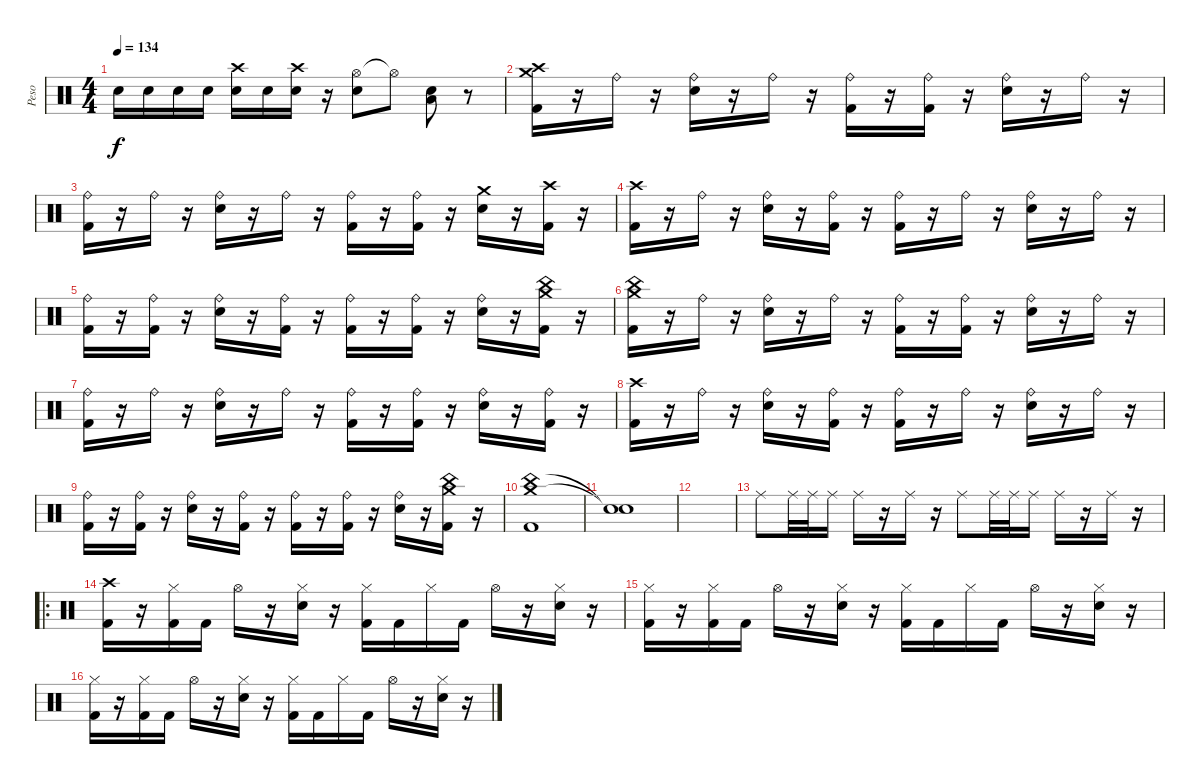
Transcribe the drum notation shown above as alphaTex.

\track ("Peso" "Peso") {instrument percussion}
\staff {score}
\articulation defaults
\ts (4 4)
\tempo 134
\clef neutral
\ks c "Snare (hit) 2".16{dy f} "Snare (hit) 2".16 "Snare (hit) 2".16 "Snare (hit) 2".16
("Crash high (hit)" "Snare (hit) 2").16 "Snare (hit) 2".16 ("Crash high (hit)" "Snare (hit) 2").16 r.16 ("Hi-Hat (open)" "Snare (hit) 2").8 "Hi-Hat (open)"{t}.8 ("Low Floor Tom (hit)" "Snare (hit) 2").8 r.8 |
("Crash high (hit)" "Crash medium (hit)" "Kick (hit) 2").16 r.16 "Ride (bell)".16 r.16 ("Ride (bell)" "Snare (hit) 2").16 r.16 "Ride (bell)".16 r.16 ("Ride (bell)" "Kick (hit) 2").16 r.16 ("Ride (bell)" "Kick (hit) 2").16 r.16 ("Ride (bell)" "Snare (hit) 2").16 r.16 "Ride (bell)".16 r.16 |
("Ride (bell)" "Kick (hit) 2").16 r.16 "Ride (bell)".16 r.16 ("Ride (bell)" "Snare (hit) 2").16 r.16 "Ride (bell)".16 r.16 ("Ride (bell)" "Kick (hit) 2").16 r.16 ("Ride (bell)" "Kick (hit) 2").16 r.16 ("Crash medium (hit)" "Snare (hit) 2").16 r.16 ("Crash high (hit)" "Kick (hit) 2").16 r.16 |
("Crash high (hit)" "Kick (hit) 2").16 r.16 "Ride (bell)".16 r.16 ("Ride (bell)" "Snare (hit) 2").16 r.16 ("Ride (bell)" "Kick (hit) 2").16 r.16 ("Ride (bell)" "Kick (hit) 2").16 r.16 "Ride (bell)".16 r.16 ("Ride (bell)" "Snare (hit) 2").16 r.16 "Ride (bell)".16 r.16 |
("Ride (bell)" "Kick (hit) 2").16 r.16 ("Ride (bell)" "Kick (hit) 2").16 r.16 ("Ride (bell)" "Snare (hit) 2").16 r.16 ("Ride (bell)" "Kick (hit) 2").16 r.16 ("Ride (bell)" "Kick (hit) 2").16 r.16 ("Ride (bell)" "Kick (hit) 2").16 r.16 ("Ride (bell)" "Snare (hit) 2").16 r.16 ("Crash medium (hit)" "China (hit)" "Kick (hit) 2").16 r.16 |
("Crash medium (hit)" "China (hit)" "Kick (hit) 2").16 r.16 "Ride (bell)".16 r.16 ("Ride (bell)" "Snare (hit) 2").16 r.16 "Ride (bell)".16 r.16 ("Ride (bell)" "Kick (hit) 2").16 r.16 ("Ride (bell)" "Kick (hit) 2").16 r.16 ("Ride (bell)" "Snare (hit) 2").16 r.16 "Ride (bell)".16 r.16 |
("Ride (bell)" "Kick (hit) 2").16 r.16 "Ride (bell)".16 r.16 ("Ride (bell)" "Snare (hit) 2").16 r.16 "Ride (bell)".16 r.16 ("Ride (bell)" "Kick (hit) 2").16 r.16 ("Ride (bell)" "Kick (hit) 2").16 r.16 ("Ride (bell)" "Snare (hit) 2").16 r.16 ("Ride (bell)" "Kick (hit) 2").16 r.16 |
("Crash high (hit)" "Kick (hit) 2").16 r.16 "Ride (bell)".16 r.16 ("Ride (bell)" "Snare (hit) 2").16 r.16 ("Ride (bell)" "Kick (hit) 2").16 r.16 ("Ride (bell)" "Kick (hit) 2").16 r.16 "Ride (bell)".16 r.16 ("Ride (bell)" "Snare (hit) 2").16 r.16 "Ride (bell)".16 r.16 |
("Ride (bell)" "Kick (hit) 2").16 r.16 ("Ride (bell)" "Kick (hit) 2").16 r.16 ("Ride (bell)" "Snare (hit) 2").16 r.16 ("Ride (bell)" "Kick (hit) 2").16 r.16 ("Ride (bell)" "Kick (hit) 2").16 r.16 ("Ride (bell)" "Kick (hit) 2").16 r.16 ("Ride (bell)" "Snare (hit) 2").16 r.16 ("Crash medium (hit)" "China (hit)" "Kick (hit) 2").16 r.16 |
("China (hit)" "Crash medium (hit)" "Kick (hit) 2").1 |
("Snare (hit)"{t} "Snare (hit)"{t}).1 |
|
"Ride (middle)".8 "Ride (middle)".32 "Ride (middle)".32 "Ride (middle)".16 "Ride (middle)".16 r.16 "Ride (middle)".16 r.16 "Ride (middle)".8 "Ride (middle)".32 "Ride (middle)".32 "Ride (middle)".16 "Ride (middle)".16 r.16 "Ride (middle)".16 r.16 |
\ro
("Crash high (hit)" "Kick (hit) 2").16 r.16 ("Hi-Hat (closed)" "Kick (hit) 2").16 "Kick (hit) 2".16 "Hi-Hat (open)".16 r.16 ("Hi-Hat (closed)" "Snare (hit) 2").16 r.16 ("Hi-Hat (closed)" "Kick (hit) 2").16 "Kick (hit) 2".16 "Hi-Hat (closed)".16 "Kick (hit) 2".16 "Hi-Hat (open)".16 r.16 ("Hi-Hat (closed)" "Snare (hit) 2").16 r.16 |
("Hi-Hat (closed)" "Kick (hit) 2").16 r.16 ("Hi-Hat (closed)" "Kick (hit) 2").16 "Kick (hit) 2".16 "Hi-Hat (open)".16 r.16 ("Hi-Hat (closed)" "Snare (hit) 2").16 r.16 ("Hi-Hat (closed)" "Kick (hit) 2").16 "Kick (hit) 2".16 "Hi-Hat (closed)".16 "Kick (hit) 2".16 "Hi-Hat (open)".16 r.16 ("Hi-Hat (closed)" "Snare (hit) 2").16 r.16 |
("Hi-Hat (closed)" "Kick (hit) 2").16 r.16 ("Hi-Hat (closed)" "Kick (hit) 2").16 "Kick (hit) 2".16 "Hi-Hat (open)".16 r.16 ("Hi-Hat (closed)" "Snare (hit) 2").16 r.16 ("Hi-Hat (closed)" "Kick (hit) 2").16 "Kick (hit) 2".16 "Hi-Hat (closed)".16 "Kick (hit) 2".16 "Hi-Hat (open)".16 r.16 ("Hi-Hat (closed)" "Snare (hit) 2").16 r.16
